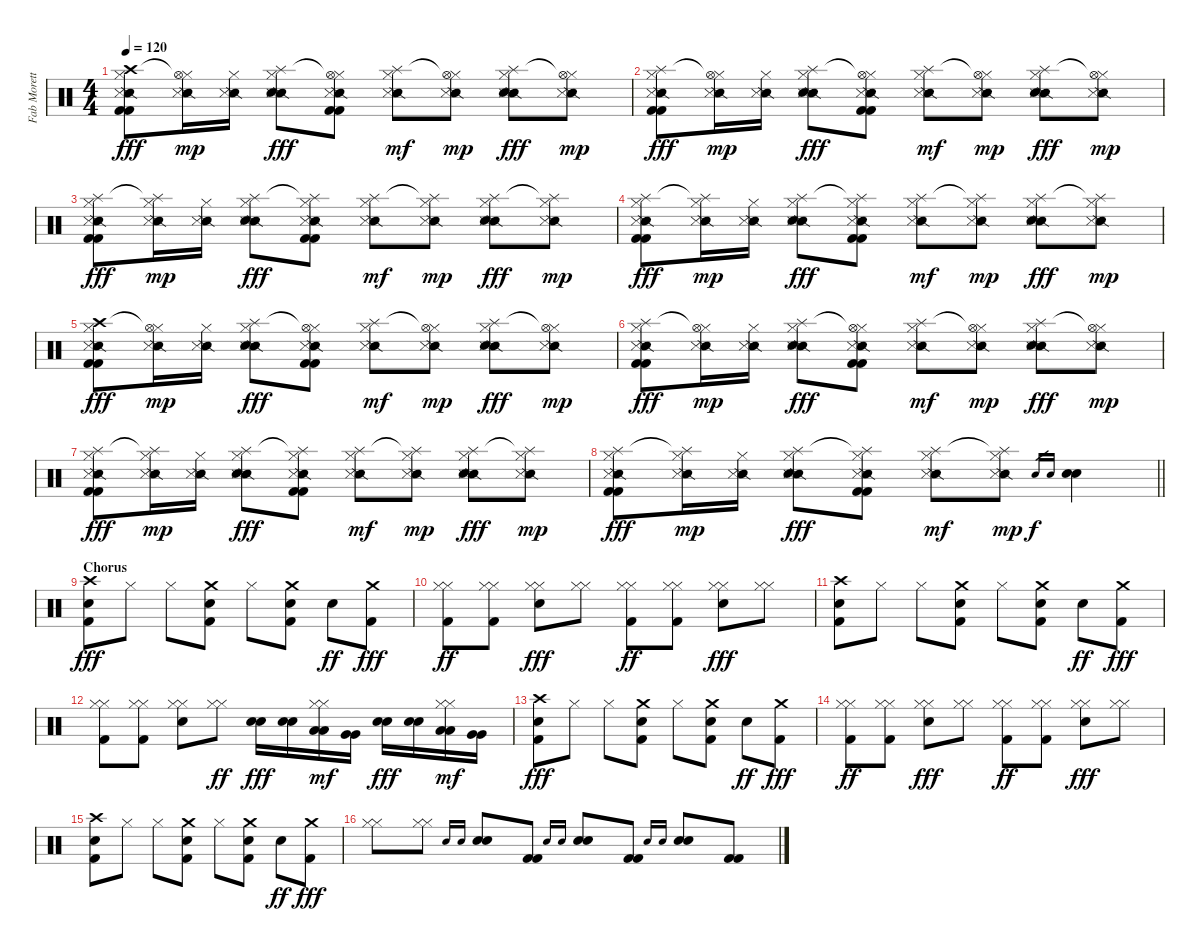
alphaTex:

\track ("Fab Moretti - Drums" "Fab Morett") {instrument percussion}
\staff {score}
\articulation defaults
\ts (4 4)
\tempo 120
\clef neutral
\ks c
("Snare (side stick) 2" "Metronome (hit)" "Hi-Hat (closed)" "Crash high (hit)" "Kick (hit) 2" "Kick (hit) 2").8{dy fff} ("Snare (side stick) 2" "Metronome (hit)" "Hi-Hat (closed)" "Hi-Hat (open)"{t}).16{dy mp} ("Snare (side stick) 2" "Metronome (hit)" "Hi-Hat (closed)").16 ("Snare (side stick) 2" "Metronome (hit)" "Hi-Hat (closed)" "Splash (hit)" "Electric Snare (hit)").8{dy fff} ("Snare (side stick) 2" "Metronome (hit)" "Hi-Hat (closed)" "Hi-Hat (open)"{t} "Kick (hit) 2" "Kick (hit) 2").8 ("Snare (side stick) 2" "Metronome (hit)" "Hi-Hat (closed)" "Splash (hit)").8{dy mf} ("Snare (side stick) 2" "Metronome (hit)" "Hi-Hat (closed)" "Hi-Hat (open)"{t}).8{dy mp} ("Snare (side stick) 2" "Metronome (hit)" "Hi-Hat (closed)" "Splash (hit)" "Electric Snare (hit)").8{dy fff} ("Snare (side stick) 2" "Metronome (hit)" "Hi-Hat (closed)" "Hi-Hat (open)"{t}).8{dy mp} |
("Snare (side stick) 2" "Metronome (hit)" "Hi-Hat (closed)" "Splash (hit)" "Kick (hit) 2" "Kick (hit) 2").8{dy fff} ("Snare (side stick) 2" "Metronome (hit)" "Hi-Hat (closed)" "Hi-Hat (open)"{t}).16{dy mp} ("Snare (side stick) 2" "Metronome (hit)" "Hi-Hat (closed)").16 ("Snare (side stick) 2" "Metronome (hit)" "Hi-Hat (closed)" "Splash (hit)" "Electric Snare (hit)").8{dy fff} ("Snare (side stick) 2" "Metronome (hit)" "Hi-Hat (closed)" "Hi-Hat (open)"{t} "Kick (hit) 2" "Kick (hit) 2").8 ("Snare (side stick) 2" "Metronome (hit)" "Hi-Hat (closed)" "Splash (hit)").8{dy mf} ("Snare (side stick) 2" "Metronome (hit)" "Hi-Hat (closed)" "Hi-Hat (open)"{t}).8{dy mp} ("Snare (side stick) 2" "Metronome (hit)" "Hi-Hat (closed)" "Splash (hit)" "Electric Snare (hit)").8{dy fff} ("Snare (side stick) 2" "Metronome (hit)" "Hi-Hat (closed)" "Hi-Hat (open)"{t}).8{dy mp} |
("Snare (side stick) 2" "Metronome (hit)" "Hi-Hat (closed)" "Splash (hit)" "Kick (hit) 2" "Kick (hit) 2").8{dy fff} ("Snare (side stick) 2" "Metronome (hit)" "Hi-Hat (closed)" "Splash (hit)"{t}).16{dy mp} ("Snare (side stick) 2" "Metronome (hit)" "Hi-Hat (closed)").16 ("Snare (side stick) 2" "Metronome (hit)" "Hi-Hat (closed)" "Splash (hit)" "Electric Snare (hit)").8{dy fff} ("Snare (side stick) 2" "Metronome (hit)" "Hi-Hat (closed)" "Splash (hit)"{t} "Kick (hit) 2" "Kick (hit) 2").8 ("Snare (side stick) 2" "Metronome (hit)" "Hi-Hat (closed)" "Splash (hit)").8{dy mf} ("Snare (side stick) 2" "Metronome (hit)" "Hi-Hat (closed)" "Splash (hit)"{t}).8{dy mp} ("Snare (side stick) 2" "Metronome (hit)" "Hi-Hat (closed)" "Splash (hit)" "Electric Snare (hit)").8{dy fff} ("Snare (side stick) 2" "Metronome (hit)" "Hi-Hat (closed)" "Splash (hit)"{t}).8{dy mp} |
("Snare (side stick) 2" "Metronome (hit)" "Hi-Hat (closed)" "Splash (hit)" "Kick (hit) 2" "Kick (hit) 2").8{dy fff} ("Snare (side stick) 2" "Metronome (hit)" "Hi-Hat (closed)" "Splash (hit)"{t}).16{dy mp} ("Snare (side stick) 2" "Metronome (hit)" "Hi-Hat (closed)").16 ("Snare (side stick) 2" "Metronome (hit)" "Hi-Hat (closed)" "Splash (hit)" "Electric Snare (hit)").8{dy fff} ("Snare (side stick) 2" "Metronome (hit)" "Hi-Hat (closed)" "Splash (hit)"{t} "Kick (hit) 2" "Kick (hit) 2").8 ("Snare (side stick) 2" "Metronome (hit)" "Hi-Hat (closed)" "Splash (hit)").8{dy mf} ("Snare (side stick) 2" "Metronome (hit)" "Hi-Hat (closed)" "Splash (hit)"{t}).8{dy mp} ("Snare (side stick) 2" "Metronome (hit)" "Hi-Hat (closed)" "Splash (hit)" "Electric Snare (hit)").8{dy fff} ("Snare (side stick) 2" "Metronome (hit)" "Hi-Hat (closed)" "Splash (hit)"{t}).8{dy mp} |
("Snare (side stick) 2" "Metronome (hit)" "Hi-Hat (closed)" "Crash high (hit)" "Kick (hit) 2" "Kick (hit) 2").8{dy fff} ("Snare (side stick) 2" "Metronome (hit)" "Hi-Hat (closed)" "Hi-Hat (open)"{t}).16{dy mp} ("Snare (side stick) 2" "Metronome (hit)" "Hi-Hat (closed)").16 ("Snare (side stick) 2" "Metronome (hit)" "Hi-Hat (closed)" "Splash (hit)" "Electric Snare (hit)").8{dy fff} ("Snare (side stick) 2" "Metronome (hit)" "Hi-Hat (closed)" "Hi-Hat (open)"{t} "Kick (hit) 2" "Kick (hit) 2").8 ("Snare (side stick) 2" "Metronome (hit)" "Hi-Hat (closed)" "Splash (hit)").8{dy mf} ("Snare (side stick) 2" "Metronome (hit)" "Hi-Hat (closed)" "Hi-Hat (open)"{t}).8{dy mp} ("Snare (side stick) 2" "Metronome (hit)" "Hi-Hat (closed)" "Splash (hit)" "Electric Snare (hit)").8{dy fff} ("Snare (side stick) 2" "Metronome (hit)" "Hi-Hat (closed)" "Hi-Hat (open)"{t}).8{dy mp} |
("Snare (side stick) 2" "Metronome (hit)" "Hi-Hat (closed)" "Splash (hit)" "Kick (hit) 2" "Kick (hit) 2").8{dy fff} ("Snare (side stick) 2" "Metronome (hit)" "Hi-Hat (closed)" "Hi-Hat (open)"{t}).16{dy mp} ("Snare (side stick) 2" "Metronome (hit)" "Hi-Hat (closed)").16 ("Snare (side stick) 2" "Metronome (hit)" "Hi-Hat (closed)" "Splash (hit)" "Electric Snare (hit)").8{dy fff} ("Snare (side stick) 2" "Metronome (hit)" "Hi-Hat (closed)" "Hi-Hat (open)"{t} "Kick (hit) 2" "Kick (hit) 2").8 ("Snare (side stick) 2" "Metronome (hit)" "Hi-Hat (closed)" "Splash (hit)").8{dy mf} ("Snare (side stick) 2" "Metronome (hit)" "Hi-Hat (closed)" "Hi-Hat (open)"{t}).8{dy mp} ("Snare (side stick) 2" "Metronome (hit)" "Hi-Hat (closed)" "Splash (hit)" "Electric Snare (hit)").8{dy fff} ("Snare (side stick) 2" "Metronome (hit)" "Hi-Hat (closed)" "Hi-Hat (open)"{t}).8{dy mp} |
("Snare (side stick) 2" "Metronome (hit)" "Hi-Hat (closed)" "Splash (hit)" "Kick (hit) 2" "Kick (hit) 2").8{dy fff} ("Snare (side stick) 2" "Metronome (hit)" "Hi-Hat (closed)" "Splash (hit)"{t}).16{dy mp} ("Snare (side stick) 2" "Metronome (hit)" "Hi-Hat (closed)").16 ("Snare (side stick) 2" "Metronome (hit)" "Hi-Hat (closed)" "Splash (hit)" "Electric Snare (hit)").8{dy fff} ("Snare (side stick) 2" "Metronome (hit)" "Hi-Hat (closed)" "Splash (hit)"{t} "Kick (hit) 2" "Kick (hit) 2").8 ("Snare (side stick) 2" "Metronome (hit)" "Hi-Hat (closed)" "Splash (hit)").8{dy mf} ("Snare (side stick) 2" "Metronome (hit)" "Hi-Hat (closed)" "Splash (hit)"{t}).8{dy mp} ("Snare (side stick) 2" "Metronome (hit)" "Hi-Hat (closed)" "Splash (hit)" "Electric Snare (hit)").8{dy fff} ("Snare (side stick) 2" "Metronome (hit)" "Hi-Hat (closed)" "Splash (hit)"{t}).8{dy mp} |
\barLineRight lightlight
("Snare (side stick) 2" "Metronome (hit)" "Hi-Hat (closed)" "Splash (hit)" "Kick (hit) 2" "Kick (hit) 2").8{dy fff} ("Snare (side stick) 2" "Metronome (hit)" "Hi-Hat (closed)" "Splash (hit)"{t}).16{dy mp} ("Snare (side stick) 2" "Metronome (hit)" "Hi-Hat (closed)").16 ("Snare (side stick) 2" "Metronome (hit)" "Hi-Hat (closed)" "Splash (hit)" "Electric Snare (hit)").8{dy fff} ("Snare (side stick) 2" "Metronome (hit)" "Hi-Hat (closed)" "Splash (hit)"{t} "Kick (hit) 2" "Kick (hit) 2").8 ("Snare (side stick) 2" "Metronome (hit)" "Hi-Hat (closed)" "Splash (hit)").8{dy mf} ("Snare (side stick) 2" "Metronome (hit)" "Hi-Hat (closed)" "Splash (hit)"{t}).8{dy mp} "Electric Snare (hit)".16{gr dy f} "Electric Snare (hit)".16{gr} ("Electric Snare (hit)" "Electric Snare (hit)").4 |
\section ("" "Chorus")
("Crash high (hit)" "Electric Snare (hit)" "Kick (hit) 2").8{dy fff} "Hi-Hat (closed)".8 "Hi-Hat (closed)".8 ("Crash medium (hit)" "Electric Snare (hit)" "Kick (hit) 2").8 "Hi-Hat (closed)".8 ("Crash medium (hit)" "Electric Snare (hit)" "Kick (hit) 2").8 "Electric Snare (hit)".8{dy ff} ("Crash medium (hit)" "Kick (hit) 2").8{dy fff} |
("Hi-Hat (closed)" "Hi-Hat (closed)" "Kick (hit) 2").8{dy ff} ("Hi-Hat (closed)" "Hi-Hat (closed)" "Kick (hit) 2").8 ("Hi-Hat (closed)" "Hi-Hat (closed)" "Electric Snare (hit)").8{dy fff} ("Hi-Hat (closed)" "Hi-Hat (closed)").8 ("Hi-Hat (closed)" "Hi-Hat (closed)" "Kick (hit) 2").8{dy ff} ("Hi-Hat (closed)" "Hi-Hat (closed)" "Kick (hit) 2").8 ("Hi-Hat (closed)" "Hi-Hat (closed)" "Electric Snare (hit)").8{dy fff} ("Hi-Hat (closed)" "Hi-Hat (closed)").8 |
("Crash high (hit)" "Electric Snare (hit)" "Kick (hit) 2").8 "Hi-Hat (closed)".8 "Hi-Hat (closed)".8 ("Crash medium (hit)" "Electric Snare (hit)" "Kick (hit) 2").8 "Hi-Hat (closed)".8 ("Crash medium (hit)" "Electric Snare (hit)" "Kick (hit) 2").8 "Electric Snare (hit)".8{dy ff} ("Crash medium (hit)" "Kick (hit) 2").8{dy fff} |
("Hi-Hat (closed)" "Hi-Hat (closed)" "Kick (hit) 2").8 ("Hi-Hat (closed)" "Hi-Hat (closed)" "Kick (hit) 2").8 ("Hi-Hat (closed)" "Hi-Hat (closed)" "Electric Snare (hit)").8 ("Hi-Hat (closed)" "Hi-Hat (closed)").8{dy ff} ("Electric Snare (hit)" "Electric Snare (hit)").16{dy fff} ("Electric Snare (hit)" "Electric Snare (hit)").16 ("Hi-Hat (closed)" "Hi-Hat (closed)" "Low Tom (hit)" "Low Tom (hit)").16{dy mf} ("Very Low Tom (hit)" "Very Low Tom (hit)").16 ("Electric Snare (hit)" "Electric Snare (hit)").16{dy fff} ("Electric Snare (hit)" "Electric Snare (hit)").16 ("Hi-Hat (closed)" "Hi-Hat (closed)" "Low Tom (hit)" "Low Tom (hit)").16{dy mf} ("Very Low Tom (hit)" "Very Low Tom (hit)").16 |
("Crash high (hit)" "Electric Snare (hit)" "Kick (hit) 2").8{dy fff} "Hi-Hat (closed)".8 "Hi-Hat (closed)".8 ("Crash medium (hit)" "Electric Snare (hit)" "Kick (hit) 2").8 "Hi-Hat (closed)".8 ("Crash medium (hit)" "Electric Snare (hit)" "Kick (hit) 2").8 "Electric Snare (hit)".8{dy ff} ("Crash medium (hit)" "Kick (hit) 2").8{dy fff} |
("Hi-Hat (closed)" "Hi-Hat (closed)" "Kick (hit) 2").8{dy ff} ("Hi-Hat (closed)" "Hi-Hat (closed)" "Kick (hit) 2").8 ("Hi-Hat (closed)" "Hi-Hat (closed)" "Electric Snare (hit)").8{dy fff} ("Hi-Hat (closed)" "Hi-Hat (closed)").8 ("Hi-Hat (closed)" "Hi-Hat (closed)" "Kick (hit) 2").8{dy ff} ("Hi-Hat (closed)" "Hi-Hat (closed)" "Kick (hit) 2").8 ("Hi-Hat (closed)" "Hi-Hat (closed)" "Electric Snare (hit)").8{dy fff} ("Hi-Hat (closed)" "Hi-Hat (closed)").8 |
("Crash high (hit)" "Electric Snare (hit)" "Kick (hit) 2").8 "Hi-Hat (closed)".8 "Hi-Hat (closed)".8 ("Crash medium (hit)" "Electric Snare (hit)" "Kick (hit) 2").8 "Hi-Hat (closed)".8 ("Crash medium (hit)" "Electric Snare (hit)" "Kick (hit) 2").8 "Electric Snare (hit)".8{dy ff} ("Crash medium (hit)" "Kick (hit) 2").8{dy fff} |
("Hi-Hat (closed)" "Hi-Hat (closed)").8 ("Hi-Hat (closed)" "Hi-Hat (closed)").8 "Electric Snare (hit)".16{gr onbeat} "Electric Snare (hit)".16{gr onbeat} ("Electric Snare (hit)" "Electric Snare (hit)").8 ("Kick (hit) 2" "Kick (hit) 2").8 "Electric Snare (hit)".16{gr onbeat} "Electric Snare (hit)".16{gr onbeat} ("Electric Snare (hit)" "Electric Snare (hit)").8 ("Kick (hit) 2" "Kick (hit) 2").8 "Electric Snare (hit)".16{gr onbeat} "Electric Snare (hit)".16{gr onbeat} ("Electric Snare (hit)" "Electric Snare (hit)").8 ("Kick (hit) 2" "Kick (hit) 2").8
